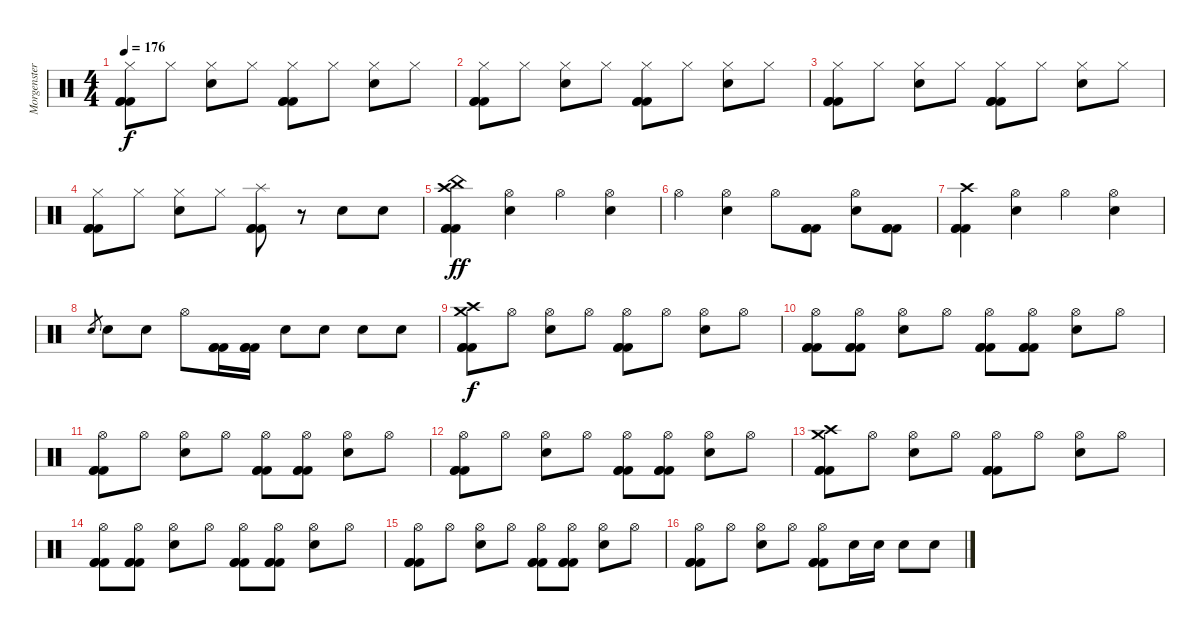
\track ("Morgenstern (Schlagzeug)" "Morgenster") {instrument percussion}
\staff {score}
\articulation defaults
\ts (4 4)
\tempo 176
\clef neutral
\ks c
("Hi-Hat (closed)" "Kick (hit) 2" "Kick (hit) 2" "Kick (hit) 2").8{dy f} "Hi-Hat (closed)".8 ("Hi-Hat (closed)" "Snare (hit) 2").8 "Hi-Hat (closed)".8 ("Hi-Hat (closed)" "Kick (hit) 2" "Kick (hit) 2" "Kick (hit) 2").8 "Hi-Hat (closed)".8 ("Hi-Hat (closed)" "Snare (hit) 2").8 "Hi-Hat (closed)".8 |
("Hi-Hat (closed)" "Kick (hit) 2" "Kick (hit) 2" "Kick (hit) 2").8 "Hi-Hat (closed)".8 ("Hi-Hat (closed)" "Snare (hit) 2").8 "Hi-Hat (closed)".8 ("Hi-Hat (closed)" "Kick (hit) 2" "Kick (hit) 2" "Kick (hit) 2").8 "Hi-Hat (closed)".8 ("Hi-Hat (closed)" "Snare (hit) 2").8 "Hi-Hat (closed)".8 |
("Hi-Hat (closed)" "Kick (hit) 2" "Kick (hit) 2" "Kick (hit) 2").8 "Hi-Hat (closed)".8 ("Hi-Hat (closed)" "Snare (hit) 2").8 "Hi-Hat (closed)".8 ("Hi-Hat (closed)" "Kick (hit) 2" "Kick (hit) 2" "Kick (hit) 2").8 "Hi-Hat (closed)".8 ("Hi-Hat (closed)" "Snare (hit) 2").8 "Hi-Hat (closed)".8 |
("Hi-Hat (closed)" "Kick (hit) 2" "Kick (hit) 2" "Kick (hit) 2").8 "Hi-Hat (closed)".8 ("Hi-Hat (closed)" "Snare (hit) 2").8 "Hi-Hat (closed)".8 ("Splash (hit)" "Kick (hit) 2" "Kick (hit) 2" "Kick (hit) 2").8 r.8 "Snare (hit) 2".8 "Snare (hit) 2".8 |
("Crash high (hit)" "China (hit)" "Kick (hit) 2" "Kick (hit) 2" "Kick (hit) 2").4{dy ff} ("Hi-Hat (open)" "Snare (hit) 2").4 "Hi-Hat (open)".4 ("Hi-Hat (open)" "Snare (hit) 2").4 |
"Hi-Hat (open)".4 ("Hi-Hat (open)" "Snare (hit) 2").4 "Hi-Hat (open)".8 ("Kick (hit) 2" "Kick (hit) 2" "Kick (hit) 2").8 ("Hi-Hat (open)" "Snare (hit) 2").8 ("Kick (hit) 2" "Kick (hit) 2" "Kick (hit) 2").8 |
("Crash high (hit)" "Kick (hit) 2" "Kick (hit) 2" "Kick (hit) 2").4 ("Hi-Hat (open)" "Snare (hit) 2").4 "Hi-Hat (open)".4 ("Hi-Hat (open)" "Snare (hit) 2").4 |
"Snare (hit) 2".8{gr} "Snare (hit) 2".8 "Snare (hit) 2".8 "Hi-Hat (open)".8 ("Kick (hit) 2" "Kick (hit) 2" "Kick (hit) 2").16 ("Kick (hit) 2" "Kick (hit) 2" "Kick (hit) 2").16 "Snare (hit) 2".8 "Snare (hit) 2".8 "Snare (hit) 2".8 "Snare (hit) 2".8 |
("Crash high (hit)" "Crash medium (hit)" "Kick (hit) 2" "Kick (hit) 2" "Kick (hit) 2").8{dy f} "Hi-Hat (open)".8 ("Hi-Hat (open)" "Snare (hit) 2").8 "Hi-Hat (open)".8 ("Hi-Hat (open)" "Kick (hit) 2" "Kick (hit) 2" "Kick (hit) 2").8 "Hi-Hat (open)".8 ("Hi-Hat (open)" "Snare (hit) 2").8 "Hi-Hat (open)".8 |
("Hi-Hat (open)" "Kick (hit) 2" "Kick (hit) 2" "Kick (hit) 2").8 ("Hi-Hat (open)" "Kick (hit) 2" "Kick (hit) 2" "Kick (hit) 2").8 ("Hi-Hat (open)" "Snare (hit) 2").8 "Hi-Hat (open)".8 ("Hi-Hat (open)" "Kick (hit) 2" "Kick (hit) 2" "Kick (hit) 2").8 ("Hi-Hat (open)" "Kick (hit) 2" "Kick (hit) 2" "Kick (hit) 2").8 ("Hi-Hat (open)" "Snare (hit) 2").8 "Hi-Hat (open)".8 |
("Hi-Hat (open)" "Kick (hit) 2" "Kick (hit) 2" "Kick (hit) 2").8 "Hi-Hat (open)".8 ("Hi-Hat (open)" "Snare (hit) 2").8 "Hi-Hat (open)".8 ("Hi-Hat (open)" "Kick (hit) 2" "Kick (hit) 2" "Kick (hit) 2").8 ("Hi-Hat (open)" "Kick (hit) 2" "Kick (hit) 2" "Kick (hit) 2").8 ("Hi-Hat (open)" "Snare (hit) 2").8 "Hi-Hat (open)".8 |
("Hi-Hat (open)" "Kick (hit) 2" "Kick (hit) 2" "Kick (hit) 2").8 "Hi-Hat (open)".8 ("Hi-Hat (open)" "Snare (hit) 2").8 "Hi-Hat (open)".8 ("Hi-Hat (open)" "Kick (hit) 2" "Kick (hit) 2" "Kick (hit) 2").8 ("Hi-Hat (open)" "Kick (hit) 2" "Kick (hit) 2" "Kick (hit) 2").8 ("Hi-Hat (open)" "Snare (hit) 2").8 "Hi-Hat (open)".8 |
("Crash high (hit)" "Crash medium (hit)" "Kick (hit) 2" "Kick (hit) 2" "Kick (hit) 2").8 "Hi-Hat (open)".8 ("Hi-Hat (open)" "Snare (hit) 2").8 "Hi-Hat (open)".8 ("Hi-Hat (open)" "Kick (hit) 2" "Kick (hit) 2" "Kick (hit) 2").8 "Hi-Hat (open)".8 ("Hi-Hat (open)" "Snare (hit) 2").8 "Hi-Hat (open)".8 |
("Hi-Hat (open)" "Kick (hit) 2" "Kick (hit) 2" "Kick (hit) 2").8 ("Hi-Hat (open)" "Kick (hit) 2" "Kick (hit) 2" "Kick (hit) 2").8 ("Hi-Hat (open)" "Snare (hit) 2").8 "Hi-Hat (open)".8 ("Hi-Hat (open)" "Kick (hit) 2" "Kick (hit) 2" "Kick (hit) 2").8 ("Hi-Hat (open)" "Kick (hit) 2" "Kick (hit) 2" "Kick (hit) 2").8 ("Hi-Hat (open)" "Snare (hit) 2").8 "Hi-Hat (open)".8 |
("Hi-Hat (open)" "Kick (hit) 2" "Kick (hit) 2" "Kick (hit) 2").8 "Hi-Hat (open)".8 ("Hi-Hat (open)" "Snare (hit) 2").8 "Hi-Hat (open)".8 ("Hi-Hat (open)" "Kick (hit) 2" "Kick (hit) 2" "Kick (hit) 2").8 ("Hi-Hat (open)" "Kick (hit) 2" "Kick (hit) 2" "Kick (hit) 2").8 ("Hi-Hat (open)" "Snare (hit) 2").8 "Hi-Hat (open)".8 |
("Hi-Hat (open)" "Kick (hit) 2" "Kick (hit) 2" "Kick (hit) 2").8 "Hi-Hat (open)".8 ("Hi-Hat (open)" "Snare (hit) 2").8 "Hi-Hat (open)".8 ("Hi-Hat (open)" "Kick (hit) 2" "Kick (hit) 2" "Kick (hit) 2").8 "Snare (hit) 2".16 "Snare (hit) 2".16 "Snare (hit) 2".8 "Snare (hit) 2".8
